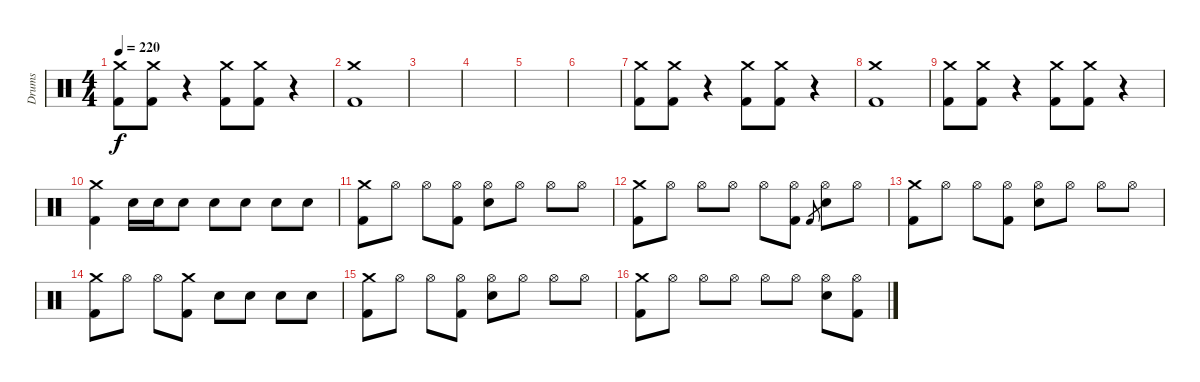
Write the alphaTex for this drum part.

\track ("Drums" "Drums") {instrument percussion}
\staff {score}
\articulation defaults
\ts (4 4)
\tempo 220
\clef neutral
\ks c
("Kick (hit) 2" "Crash medium (hit)").8{dy f} ("Kick (hit) 2" "Crash medium (hit)").8 r.4 ("Kick (hit) 2" "Crash medium (hit)").8 ("Kick (hit) 2" "Crash medium (hit)").8 r.4 |
("Crash medium (hit)" "Kick (hit) 2").1 |
|
|
|
|
("Kick (hit) 2" "Crash medium (hit)").8 ("Kick (hit) 2" "Crash medium (hit)").8 r.4 ("Kick (hit) 2" "Crash medium (hit)").8 ("Kick (hit) 2" "Crash medium (hit)").8 r.4 |
("Crash medium (hit)" "Kick (hit) 2").1 |
("Kick (hit) 2" "Crash medium (hit)").8 ("Kick (hit) 2" "Crash medium (hit)").8 r.4 ("Kick (hit) 2" "Crash medium (hit)").8 ("Kick (hit) 2" "Crash medium (hit)").8 r.4 |
("Crash medium (hit)" "Kick (hit) 2").4 "Electric Snare (hit)".16 "Electric Snare (hit)".16 "Electric Snare (hit)".8 "Electric Snare (hit)".8 "Electric Snare (hit)".8 "Electric Snare (hit)".8 "Electric Snare (hit)".8 |
("Kick (hit) 2" "Crash medium (hit)").8 "Hi-Hat (open)".8 "Hi-Hat (open)".8 ("Kick (hit) 2" "Hi-Hat (open)").8 ("Electric Snare (hit)" "Hi-Hat (open)").8 "Hi-Hat (open)".8 "Hi-Hat (open)".8 "Hi-Hat (open)".8 |
("Kick (hit) 2" "Crash medium (hit)").8 "Hi-Hat (open)".8 "Hi-Hat (open)".8 "Hi-Hat (open)".8 "Hi-Hat (open)".8 ("Kick (hit) 2" "Hi-Hat (open)").8 "Kick (hit) 2".8{gr} ("Electric Snare (hit)" "Hi-Hat (open)").8 "Hi-Hat (open)".8 |
("Kick (hit) 2" "Crash medium (hit)").8 "Hi-Hat (open)".8 "Hi-Hat (open)".8 ("Kick (hit) 2" "Hi-Hat (open)").8 ("Electric Snare (hit)" "Hi-Hat (open)").8 "Hi-Hat (open)".8 "Hi-Hat (open)".8 "Hi-Hat (open)".8 |
("Kick (hit) 2" "Crash medium (hit)").8 "Hi-Hat (open)".8 "Hi-Hat (open)".8 ("Kick (hit) 2" "Crash medium (hit)").8 "Electric Snare (hit)".8 "Electric Snare (hit)".8 "Electric Snare (hit)".8 "Electric Snare (hit)".8 |
("Kick (hit) 2" "Crash medium (hit)").8 "Hi-Hat (open)".8 "Hi-Hat (open)".8 ("Kick (hit) 2" "Hi-Hat (open)").8 ("Electric Snare (hit)" "Hi-Hat (open)").8 "Hi-Hat (open)".8 "Hi-Hat (open)".8 "Hi-Hat (open)".8 |
("Kick (hit) 2" "Crash medium (hit)").8 "Hi-Hat (open)".8 "Hi-Hat (open)".8 "Hi-Hat (open)".8 "Hi-Hat (open)".8 "Hi-Hat (open)".8 ("Electric Snare (hit)" "Hi-Hat (open)").8 ("Kick (hit) 2" "Hi-Hat (open)").8
